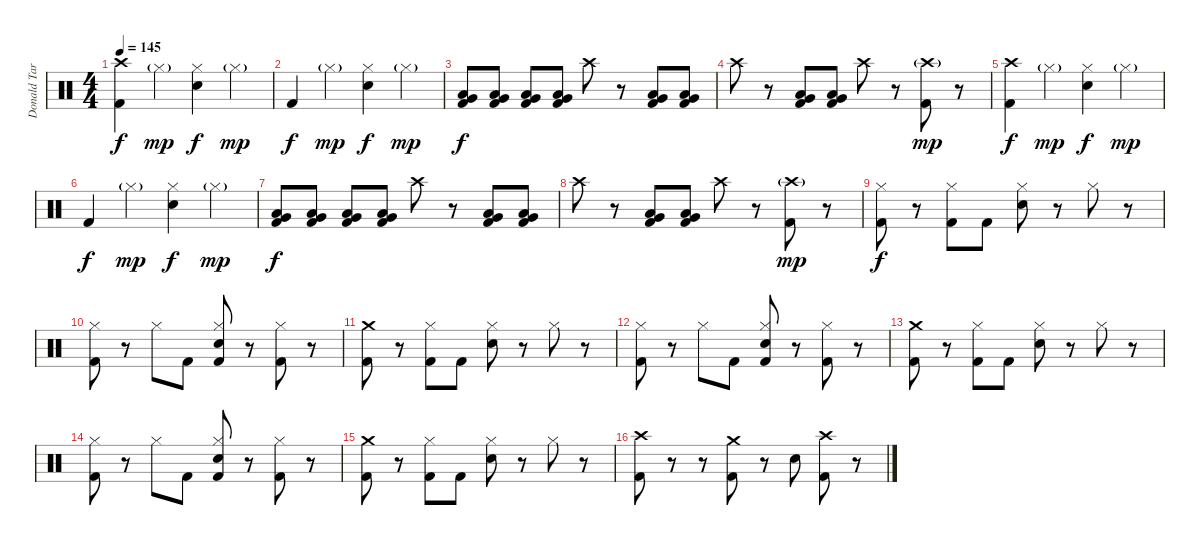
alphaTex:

\track ("Donald Tardy" "Donald Tar") {instrument percussion}
\staff {score}
\articulation defaults
\ts (4 4)
\tempo 145
\clef neutral
\ks c
("Crash high (hit)" "Kick (hit) 2").4{dy f} "Hi-Hat (closed)"{g}.4{dy mp} ("Hi-Hat (closed)" "Electric Snare (hit)").4{dy f} "Hi-Hat (closed)"{g}.4{dy mp} |
"Kick (hit) 2".4{dy f} "Hi-Hat (closed)"{g}.4{dy mp} ("Hi-Hat (closed)" "Electric Snare (hit)").4{dy f} "Hi-Hat (closed)"{g}.4{dy mp} |
("Very Low Tom (hit)" "Low Floor Tom (hit)" "Kick (hit) 2").8{dy f} ("Very Low Tom (hit)" "Low Floor Tom (hit)" "Kick (hit) 2").8 ("Very Low Tom (hit)" "Low Floor Tom (hit)" "Kick (hit) 2").8 ("Very Low Tom (hit)" "Low Floor Tom (hit)" "Kick (hit) 2").8 "Crash high (hit)".8 r.8 ("Very Low Tom (hit)" "Low Floor Tom (hit)" "Kick (hit) 2").8 ("Very Low Tom (hit)" "Low Floor Tom (hit)" "Kick (hit) 2").8 |
"Crash high (hit)".8 r.8 ("Very Low Tom (hit)" "Low Floor Tom (hit)" "Kick (hit) 2").8 ("Very Low Tom (hit)" "Low Floor Tom (hit)" "Kick (hit) 2").8 "Crash high (hit)".8 r.8 ("Crash high (hit)"{g} "Kick (hit) 2").8{dy mp} r.8 |
("Crash high (hit)" "Kick (hit) 2").4{dy f} "Hi-Hat (closed)"{g}.4{dy mp} ("Hi-Hat (closed)" "Electric Snare (hit)").4{dy f} "Hi-Hat (closed)"{g}.4{dy mp} |
"Kick (hit) 2".4{dy f} "Hi-Hat (closed)"{g}.4{dy mp} ("Hi-Hat (closed)" "Electric Snare (hit)").4{dy f} "Hi-Hat (closed)"{g}.4{dy mp} |
("Very Low Tom (hit)" "Low Floor Tom (hit)" "Kick (hit) 2").8{dy f} ("Very Low Tom (hit)" "Low Floor Tom (hit)" "Kick (hit) 2").8 ("Very Low Tom (hit)" "Low Floor Tom (hit)" "Kick (hit) 2").8 ("Very Low Tom (hit)" "Low Floor Tom (hit)" "Kick (hit) 2").8 "Crash high (hit)".8 r.8 ("Very Low Tom (hit)" "Low Floor Tom (hit)" "Kick (hit) 2").8 ("Very Low Tom (hit)" "Low Floor Tom (hit)" "Kick (hit) 2").8 |
"Crash high (hit)".8 r.8 ("Very Low Tom (hit)" "Low Floor Tom (hit)" "Kick (hit) 2").8 ("Very Low Tom (hit)" "Low Floor Tom (hit)" "Kick (hit) 2").8 "Crash high (hit)".8 r.8 ("Crash high (hit)"{g} "Kick (hit) 2").8{dy mp} r.8 |
("Hi-Hat (closed)" "Kick (hit) 2").8{dy f} r.8 ("Hi-Hat (closed)" "Kick (hit) 2").8 "Kick (hit) 2".8 ("Hi-Hat (closed)" "Electric Snare (hit)").8 r.8 "Hi-Hat (closed)".8 r.8 |
("Hi-Hat (closed)" "Kick (hit) 2").8 r.8 "Hi-Hat (closed)".8 "Kick (hit) 2".8 ("Hi-Hat (closed)" "Electric Snare (hit)" "Kick (hit) 2").8 r.8 ("Hi-Hat (closed)" "Kick (hit) 2").8 r.8 |
("Crash medium (hit)" "Kick (hit) 2").8 r.8 ("Hi-Hat (closed)" "Kick (hit) 2").8 "Kick (hit) 2".8 ("Hi-Hat (closed)" "Electric Snare (hit)").8 r.8 "Hi-Hat (closed)".8 r.8 |
("Hi-Hat (closed)" "Kick (hit) 2").8 r.8 "Hi-Hat (closed)".8 "Kick (hit) 2".8 ("Hi-Hat (closed)" "Electric Snare (hit)" "Kick (hit) 2").8 r.8 ("Hi-Hat (closed)" "Kick (hit) 2").8 r.8 |
("Crash medium (hit)" "Kick (hit) 2").8 r.8 ("Hi-Hat (closed)" "Kick (hit) 2").8 "Kick (hit) 2".8 ("Hi-Hat (closed)" "Electric Snare (hit)").8 r.8 "Hi-Hat (closed)".8 r.8 |
("Hi-Hat (closed)" "Kick (hit) 2").8 r.8 "Hi-Hat (closed)".8 "Kick (hit) 2".8 ("Hi-Hat (closed)" "Electric Snare (hit)" "Kick (hit) 2").8 r.8 ("Hi-Hat (closed)" "Kick (hit) 2").8 r.8 |
("Crash medium (hit)" "Kick (hit) 2").8 r.8 ("Hi-Hat (closed)" "Kick (hit) 2").8 "Kick (hit) 2".8 ("Hi-Hat (closed)" "Electric Snare (hit)").8 r.8 "Hi-Hat (closed)".8 r.8 |
("Crash high (hit)" "Kick (hit) 2").8 r.8 r.8 ("Crash medium (hit)" "Kick (hit) 2").8 r.8 "Electric Snare (hit)".8 ("Crash high (hit)" "Kick (hit) 2").8 r.8
